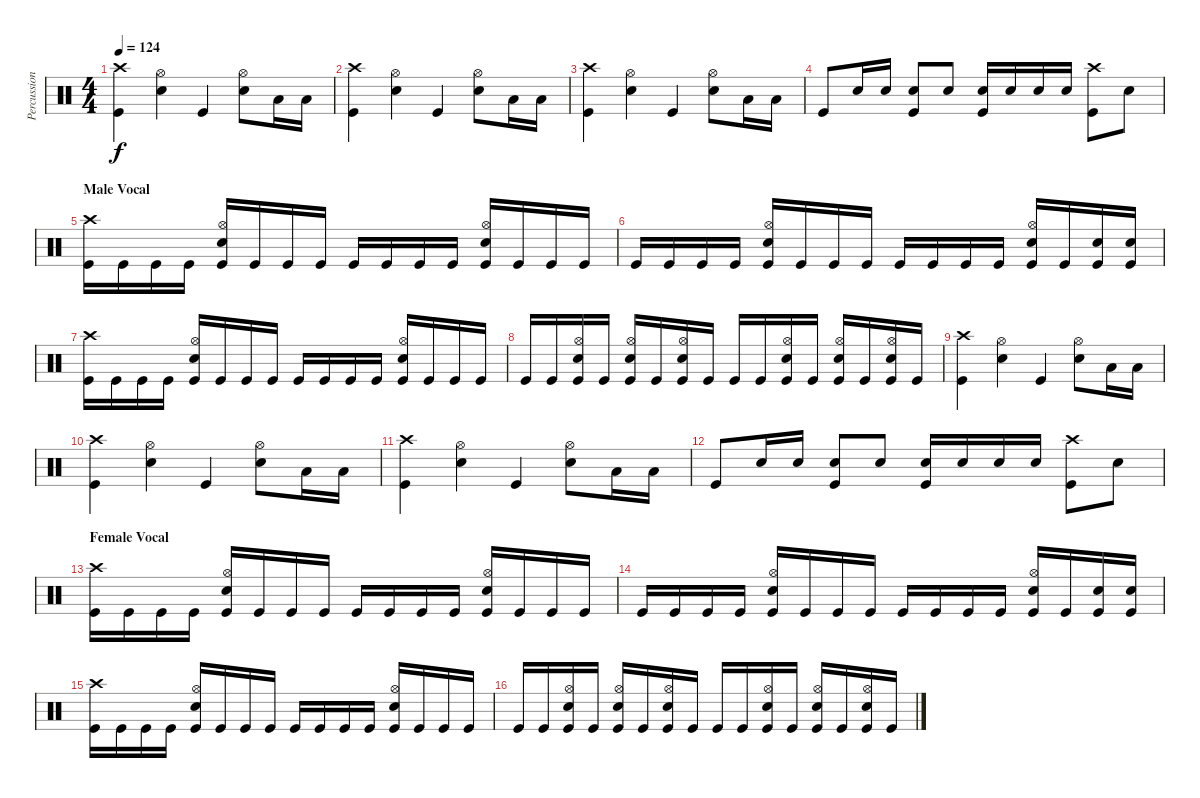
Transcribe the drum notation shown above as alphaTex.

\track ("Percussion" "Percussion") {instrument percussion}
\staff {score}
\articulation defaults
\ts (4 4)
\tempo 124
\clef neutral
\ks c
("Crash high (hit)" "Kick (hit)").4{dy f} ("Hi-Hat (open)" "Snare (hit) 2").4 "Kick (hit)".4 ("Hi-Hat (open)" "Snare (hit) 2").8 "Low Tom (hit)".16 "Low Tom (hit)".16 |
("Crash high (hit)" "Kick (hit)").4 ("Hi-Hat (open)" "Snare (hit) 2").4 "Kick (hit)".4 ("Hi-Hat (open)" "Snare (hit) 2").8 "Low Tom (hit)".16 "Low Tom (hit)".16 |
("Crash high (hit)" "Kick (hit)").4 ("Hi-Hat (open)" "Snare (hit) 2").4 "Kick (hit)".4 ("Hi-Hat (open)" "Snare (hit) 2").8 "Low Tom (hit)".16 "Low Tom (hit)".16 |
"Kick (hit)".8 "Snare (hit) 2".16 "Snare (hit) 2".16 ("Snare (hit) 2" "Kick (hit)").8 "Snare (hit) 2".8 ("Snare (hit) 2" "Kick (hit)").16 "Snare (hit) 2".16 "Snare (hit) 2".16 "Snare (hit) 2".16 ("Crash high (hit)" "Kick (hit)").8 "Snare (hit) 2".8 |
\section ("" "Male Vocal")
("Crash high (hit)" "Kick (hit)").16 "Kick (hit)".16 "Kick (hit)".16 "Kick (hit)".16 ("Hi-Hat (open)" "Snare (hit) 2" "Kick (hit)").16 "Kick (hit)".16 "Kick (hit)".16 "Kick (hit)".16 "Kick (hit)".16 "Kick (hit)".16 "Kick (hit)".16 "Kick (hit)".16 ("Hi-Hat (open)" "Snare (hit) 2" "Kick (hit)").16 "Kick (hit)".16 "Kick (hit)".16 "Kick (hit)".16 |
"Kick (hit)".16 "Kick (hit)".16 "Kick (hit)".16 "Kick (hit)".16 ("Hi-Hat (open)" "Snare (hit) 2" "Kick (hit)").16 "Kick (hit)".16 "Kick (hit)".16 "Kick (hit)".16 "Kick (hit)".16 "Kick (hit)".16 "Kick (hit)".16 "Kick (hit)".16 ("Hi-Hat (open)" "Snare (hit) 2" "Kick (hit)").16 "Kick (hit)".16 ("Snare (hit) 2" "Kick (hit)").16 ("Snare (hit) 2" "Kick (hit)").16 |
("Crash high (hit)" "Kick (hit)").16 "Kick (hit)".16 "Kick (hit)".16 "Kick (hit)".16 ("Hi-Hat (open)" "Snare (hit) 2" "Kick (hit)").16 "Kick (hit)".16 "Kick (hit)".16 "Kick (hit)".16 "Kick (hit)".16 "Kick (hit)".16 "Kick (hit)".16 "Kick (hit)".16 ("Hi-Hat (open)" "Snare (hit) 2" "Kick (hit)").16 "Kick (hit)".16 "Kick (hit)".16 "Kick (hit)".16 |
"Kick (hit)".16 "Kick (hit)".16 ("Hi-Hat (open)" "Snare (hit) 2" "Kick (hit)").16 "Kick (hit)".16 ("Hi-Hat (open)" "Snare (hit) 2" "Kick (hit)").16 "Kick (hit)".16 ("Hi-Hat (open)" "Snare (hit) 2" "Kick (hit)").16 "Kick (hit)".16 "Kick (hit)".16 "Kick (hit)".16 ("Hi-Hat (open)" "Snare (hit) 2" "Kick (hit)").16 "Kick (hit)".16 ("Hi-Hat (open)" "Snare (hit) 2" "Kick (hit)").16 "Kick (hit)".16 ("Hi-Hat (open)" "Snare (hit) 2" "Kick (hit)").16 "Kick (hit)".16 |
("Crash high (hit)" "Kick (hit)").4 ("Hi-Hat (open)" "Snare (hit) 2").4 "Kick (hit)".4 ("Hi-Hat (open)" "Snare (hit) 2").8 "Low Tom (hit)".16 "Low Tom (hit)".16 |
("Crash high (hit)" "Kick (hit)").4 ("Hi-Hat (open)" "Snare (hit) 2").4 "Kick (hit)".4 ("Hi-Hat (open)" "Snare (hit) 2").8 "Low Tom (hit)".16 "Low Tom (hit)".16 |
("Crash high (hit)" "Kick (hit)").4 ("Hi-Hat (open)" "Snare (hit) 2").4 "Kick (hit)".4 ("Hi-Hat (open)" "Snare (hit) 2").8 "Low Tom (hit)".16 "Low Tom (hit)".16 |
"Kick (hit)".8 "Snare (hit) 2".16 "Snare (hit) 2".16 ("Snare (hit) 2" "Kick (hit)").8 "Snare (hit) 2".8 ("Snare (hit) 2" "Kick (hit)").16 "Snare (hit) 2".16 "Snare (hit) 2".16 "Snare (hit) 2".16 ("Crash high (hit)" "Kick (hit)").8 "Snare (hit) 2".8 |
\section ("" "Female Vocal")
("Crash high (hit)" "Kick (hit)").16 "Kick (hit)".16 "Kick (hit)".16 "Kick (hit)".16 ("Hi-Hat (open)" "Snare (hit) 2" "Kick (hit)").16 "Kick (hit)".16 "Kick (hit)".16 "Kick (hit)".16 "Kick (hit)".16 "Kick (hit)".16 "Kick (hit)".16 "Kick (hit)".16 ("Hi-Hat (open)" "Snare (hit) 2" "Kick (hit)").16 "Kick (hit)".16 "Kick (hit)".16 "Kick (hit)".16 |
"Kick (hit)".16 "Kick (hit)".16 "Kick (hit)".16 "Kick (hit)".16 ("Hi-Hat (open)" "Snare (hit) 2" "Kick (hit)").16 "Kick (hit)".16 "Kick (hit)".16 "Kick (hit)".16 "Kick (hit)".16 "Kick (hit)".16 "Kick (hit)".16 "Kick (hit)".16 ("Hi-Hat (open)" "Snare (hit) 2" "Kick (hit)").16 "Kick (hit)".16 ("Snare (hit) 2" "Kick (hit)").16 ("Snare (hit) 2" "Kick (hit)").16 |
("Crash high (hit)" "Kick (hit)").16 "Kick (hit)".16 "Kick (hit)".16 "Kick (hit)".16 ("Hi-Hat (open)" "Snare (hit) 2" "Kick (hit)").16 "Kick (hit)".16 "Kick (hit)".16 "Kick (hit)".16 "Kick (hit)".16 "Kick (hit)".16 "Kick (hit)".16 "Kick (hit)".16 ("Hi-Hat (open)" "Snare (hit) 2" "Kick (hit)").16 "Kick (hit)".16 "Kick (hit)".16 "Kick (hit)".16 |
"Kick (hit)".16 "Kick (hit)".16 ("Hi-Hat (open)" "Snare (hit) 2" "Kick (hit)").16 "Kick (hit)".16 ("Hi-Hat (open)" "Snare (hit) 2" "Kick (hit)").16 "Kick (hit)".16 ("Hi-Hat (open)" "Snare (hit) 2" "Kick (hit)").16 "Kick (hit)".16 "Kick (hit)".16 "Kick (hit)".16 ("Hi-Hat (open)" "Snare (hit) 2" "Kick (hit)").16 "Kick (hit)".16 ("Hi-Hat (open)" "Snare (hit) 2" "Kick (hit)").16 "Kick (hit)".16 ("Hi-Hat (open)" "Snare (hit) 2" "Kick (hit)").16 "Kick (hit)".16
